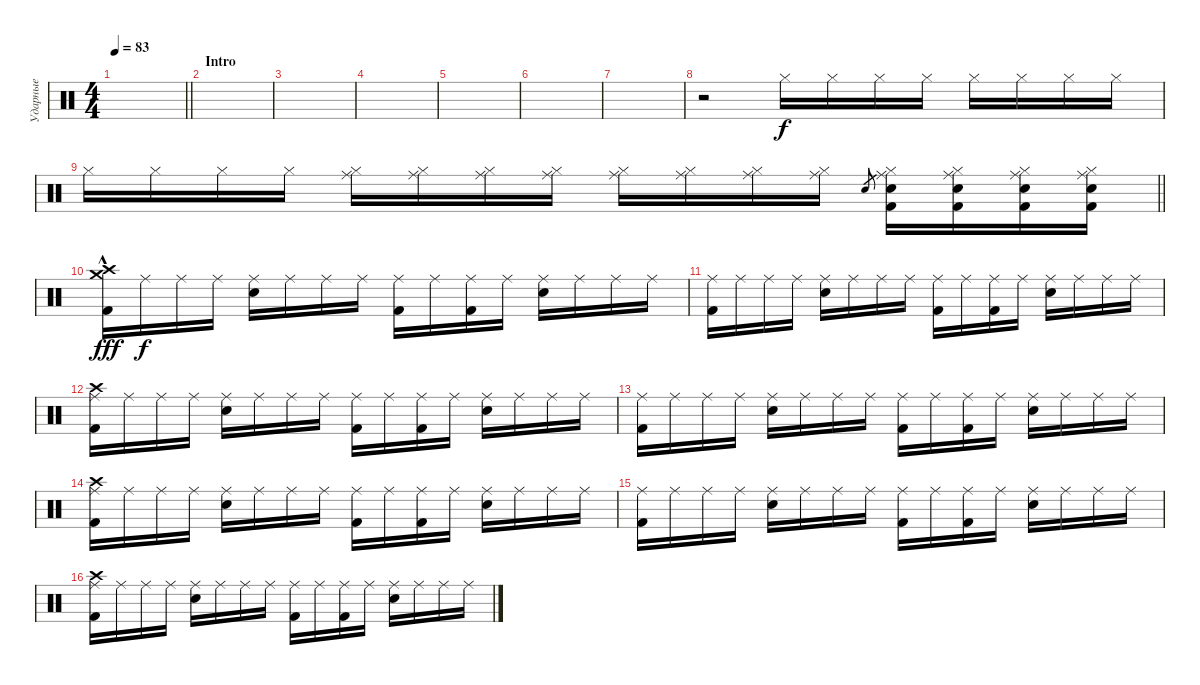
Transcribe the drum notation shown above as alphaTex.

\track ("Ударные" "Ударные") {instrument percussion}
\staff {score}
\articulation defaults
\ts (4 4)
\tempo 83
\clef neutral
\barLineRight lightlight
\ks c
|
\section ("" "Intro")
|
|
|
|
|
|
r.2 "Hi-Hat (closed)".16 "Hi-Hat (closed)".16 "Hi-Hat (closed)".16 "Hi-Hat (closed)".16 "Hi-Hat (closed)".16 "Hi-Hat (closed)".16 "Hi-Hat (closed)".16 "Hi-Hat (closed)".16 |
\barLineRight lightlight "Hi-Hat (closed)".16 "Hi-Hat (closed)".16 "Hi-Hat (closed)".16 "Hi-Hat (closed)".16
("Ride (middle)" "Hi-Hat (closed)").16 ("Ride (middle)" "Hi-Hat (closed)").16 ("Ride (middle)" "Hi-Hat (closed)").16 ("Ride (middle)" "Hi-Hat (closed)").16 ("Ride (middle)" "Hi-Hat (closed)").16 ("Ride (middle)" "Hi-Hat (closed)").16 ("Ride (middle)" "Hi-Hat (closed)").16 ("Ride (middle)" "Hi-Hat (closed)").16 "Snare (hit) 2".8{gr} ("Ride (middle)" "Hi-Hat (closed)" "Snare (hit) 2" "Kick (hit) 2").16 ("Ride (middle)" "Hi-Hat (closed)" "Snare (hit) 2" "Kick (hit) 2").16 ("Ride (middle)" "Hi-Hat (closed)" "Snare (hit) 2" "Kick (hit) 2").16 ("Ride (middle)" "Hi-Hat (closed)" "Snare (hit) 2" "Kick (hit) 2").16 |
("Crash medium (hit)"{hac} "Crash high (hit)"{hac} "Kick (hit) 2").16{dy fff} "Ride (middle)".16{dy f} "Ride (middle)".16 "Ride (middle)".16 ("Ride (middle)" "Snare (hit) 2").16 "Ride (middle)".16 "Ride (middle)".16 "Ride (middle)".16 ("Ride (middle)" "Kick (hit) 2").16 "Ride (middle)".16 ("Ride (middle)" "Kick (hit) 2").16 "Ride (middle)".16 ("Ride (middle)" "Snare (hit) 2").16 "Ride (middle)".16 "Ride (middle)".16 "Ride (middle)".16 |
("Ride (middle)" "Kick (hit) 2").16 "Ride (middle)".16 "Ride (middle)".16 "Ride (middle)".16 ("Ride (middle)" "Snare (hit) 2").16 "Ride (middle)".16 "Ride (middle)".16 "Ride (middle)".16 ("Ride (middle)" "Kick (hit) 2").16 "Ride (middle)".16 ("Ride (middle)" "Kick (hit) 2").16 "Ride (middle)".16 ("Ride (middle)" "Snare (hit) 2").16 "Ride (middle)".16 "Ride (middle)".16 "Ride (middle)".16 |
("Ride (middle)" "Crash high (hit)" "Kick (hit) 2").16 "Ride (middle)".16 "Ride (middle)".16 "Ride (middle)".16 ("Ride (middle)" "Snare (hit) 2").16 "Ride (middle)".16 "Ride (middle)".16 "Ride (middle)".16 ("Ride (middle)" "Kick (hit) 2").16 "Ride (middle)".16 ("Ride (middle)" "Kick (hit) 2").16 "Ride (middle)".16 ("Ride (middle)" "Snare (hit) 2").16 "Ride (middle)".16 "Ride (middle)".16 "Ride (middle)".16 |
("Ride (middle)" "Kick (hit) 2").16 "Ride (middle)".16 "Ride (middle)".16 "Ride (middle)".16 ("Ride (middle)" "Snare (hit) 2").16 "Ride (middle)".16 "Ride (middle)".16 "Ride (middle)".16 ("Ride (middle)" "Kick (hit) 2").16 "Ride (middle)".16 ("Ride (middle)" "Kick (hit) 2").16 "Ride (middle)".16 ("Ride (middle)" "Snare (hit) 2").16 "Ride (middle)".16 "Ride (middle)".16 "Ride (middle)".16 |
("Ride (middle)" "Crash high (hit)" "Kick (hit) 2").16 "Ride (middle)".16 "Ride (middle)".16 "Ride (middle)".16 ("Ride (middle)" "Snare (hit) 2").16 "Ride (middle)".16 "Ride (middle)".16 "Ride (middle)".16 ("Ride (middle)" "Kick (hit) 2").16 "Ride (middle)".16 ("Ride (middle)" "Kick (hit) 2").16 "Ride (middle)".16 ("Ride (middle)" "Snare (hit) 2").16 "Ride (middle)".16 "Ride (middle)".16 "Ride (middle)".16 |
("Ride (middle)" "Kick (hit) 2").16 "Ride (middle)".16 "Ride (middle)".16 "Ride (middle)".16 ("Ride (middle)" "Snare (hit) 2").16 "Ride (middle)".16 "Ride (middle)".16 "Ride (middle)".16 ("Ride (middle)" "Kick (hit) 2").16 "Ride (middle)".16 ("Ride (middle)" "Kick (hit) 2").16 "Ride (middle)".16 ("Ride (middle)" "Snare (hit) 2").16 "Ride (middle)".16 "Ride (middle)".16 "Ride (middle)".16 |
("Ride (middle)" "Crash high (hit)" "Kick (hit) 2").16 "Ride (middle)".16 "Ride (middle)".16 "Ride (middle)".16 ("Ride (middle)" "Snare (hit) 2").16 "Ride (middle)".16 "Ride (middle)".16 "Ride (middle)".16 ("Ride (middle)" "Kick (hit) 2").16 "Ride (middle)".16 ("Ride (middle)" "Kick (hit) 2").16 "Ride (middle)".16 ("Ride (middle)" "Snare (hit) 2").16 "Ride (middle)".16 "Ride (middle)".16 "Ride (middle)".16
